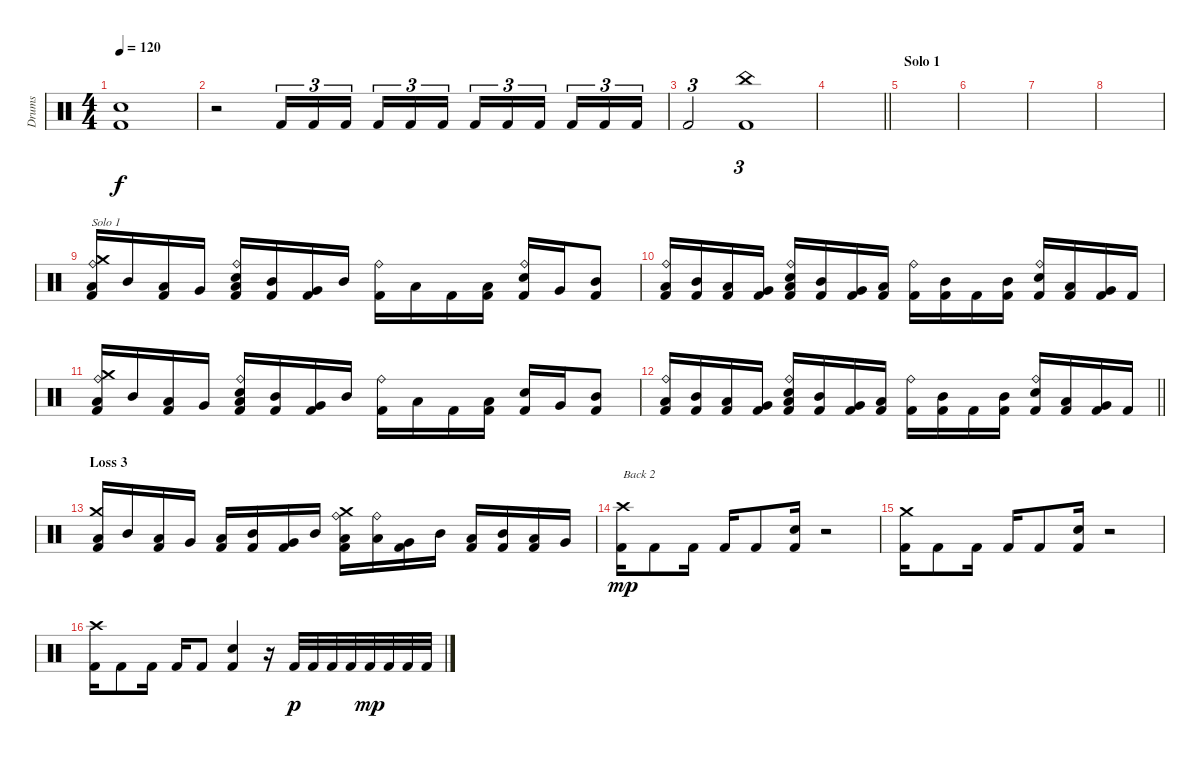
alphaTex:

\track ("Drums" "Drums") {instrument percussion}
\staff {score}
\articulation defaults
\ts (4 4)
\tempo 120
\clef neutral
\ks c
("Snare (hit) 2" "Kick (hit) 2").1{dy f} |
r.2 "Kick (hit) 2".16{tu (3 2)} "Kick (hit) 2".16{tu (3 2)} "Kick (hit) 2".16{tu (3 2) beam splitsecondary} "Kick (hit) 2".16{tu (3 2)} "Kick (hit) 2".16{tu (3 2)} "Kick (hit) 2".16{tu (3 2)} "Kick (hit) 2".16{tu (3 2)} "Kick (hit) 2".16{tu (3 2)} "Kick (hit) 2".16{tu (3 2) beam splitsecondary} "Kick (hit) 2".16{tu (3 2)} "Kick (hit) 2".16{tu (3 2)} "Kick (hit) 2".16{tu (3 2)} |
"Kick (hit) 2".2{tu (3 2)} ("China (hit)" "Kick (hit) 2").1{tu (3 2)} |
\barLineRight lightlight
|
\section ("" "Solo 1")
|
|
|
|
("Crash medium (hit)" "Ride (bell)" "Low Tom (hit)" "Kick (hit) 2").16{txt "Solo 1"} "Mid Tom (hit)".16 ("Low Tom (hit)" "Kick (hit) 2").16 "Very Low Tom (hit)".16 ("Ride (bell)" "Low Tom (hit)" "Electric Snare (hit)" "Kick (hit) 2").16 ("Mid Tom (hit)" "Kick (hit) 2").16 ("Very Low Tom (hit)" "Kick (hit) 2").16 "Mid Tom (hit)".16 ("Ride (bell)" "Kick (hit) 2").16 "Low Tom (hit)".16 "Kick (hit) 2".16 ("Low Tom (hit)" "Kick (hit) 2").16 ("Ride (bell)" "Electric Snare (hit)" "Kick (hit) 2").16 "Very Low Tom (hit)".16 ("Mid Tom (hit)" "Kick (hit) 2").8 |
("Ride (bell)" "Low Tom (hit)" "Kick (hit) 2").16 ("Mid Tom (hit)" "Kick (hit) 2").16 ("Low Tom (hit)" "Kick (hit) 2").16 ("Very Low Tom (hit)" "Kick (hit) 2").16 ("Ride (bell)" "Low Tom (hit)" "Electric Snare (hit)" "Kick (hit) 2").16 ("Mid Tom (hit)" "Kick (hit) 2").16 ("Very Low Tom (hit)" "Kick (hit) 2").16 ("Low Tom (hit)" "Kick (hit) 2").16 ("Ride (bell)" "Kick (hit) 2").16 ("Mid Tom (hit)" "Kick (hit) 2").16 "Kick (hit) 2".16 ("Mid Tom (hit)" "Kick (hit) 2").16 ("Ride (bell)" "Electric Snare (hit)" "Kick (hit) 2").16 ("Low Tom (hit)" "Kick (hit) 2").16 ("Very Low Tom (hit)" "Kick (hit) 2").16 "Kick (hit) 2".16 |
("Crash medium (hit)" "Ride (bell)" "Low Tom (hit)" "Kick (hit) 2").16 "Mid Tom (hit)".16 ("Low Tom (hit)" "Kick (hit) 2").16 "Very Low Tom (hit)".16 ("Ride (bell)" "Low Tom (hit)" "Electric Snare (hit)" "Kick (hit) 2").16 ("Mid Tom (hit)" "Kick (hit) 2").16 ("Very Low Tom (hit)" "Kick (hit) 2").16 "Mid Tom (hit)".16 ("Ride (bell)" "Kick (hit) 2").16 "Low Tom (hit)".16 "Kick (hit) 2".16 ("Low Tom (hit)" "Kick (hit) 2").16 ("Electric Snare (hit)" "Kick (hit) 2").16 "Very Low Tom (hit)".16 ("Mid Tom (hit)" "Kick (hit) 2").8 |
\barLineRight lightlight
("Ride (bell)" "Low Tom (hit)" "Kick (hit) 2").16 ("Mid Tom (hit)" "Kick (hit) 2").16 ("Low Tom (hit)" "Kick (hit) 2").16 ("Very Low Tom (hit)" "Kick (hit) 2").16 ("Ride (bell)" "Low Tom (hit)" "Electric Snare (hit)" "Kick (hit) 2").16 ("Mid Tom (hit)" "Kick (hit) 2").16 ("Very Low Tom (hit)" "Kick (hit) 2").16 ("Low Tom (hit)" "Kick (hit) 2").16 ("Ride (bell)" "Kick (hit) 2").16 ("Mid Tom (hit)" "Kick (hit) 2").16 "Kick (hit) 2".16 ("Mid Tom (hit)" "Kick (hit) 2").16 ("Ride (bell)" "Electric Snare (hit)" "Kick (hit) 2").16 ("Low Tom (hit)" "Kick (hit) 2").16 ("Very Low Tom (hit)" "Kick (hit) 2").16 "Kick (hit) 2".16 |
\section ("" "Loss 3")
("Crash medium (hit)" "Low Tom (hit)" "Kick (hit) 2").16 "Mid Tom (hit)".16 ("Low Tom (hit)" "Kick (hit) 2").16 "Very Low Tom (hit)".16 ("Low Tom (hit)" "Kick (hit) 2").16 ("Mid Tom (hit)" "Kick (hit) 2").16 ("Very Low Tom (hit)" "Kick (hit) 2").16 "Mid Tom (hit)".16 ("Crash medium (hit)" "Ride (bell)" "Low Tom (hit)" "Kick (hit) 2").16 ("Ride (bell)" "Low Tom (hit)").16 ("Very Low Tom (hit)" "Kick (hit) 2").16 "Mid Tom (hit)".16 ("Low Tom (hit)" "Kick (hit) 2").16 ("Mid Tom (hit)" "Kick (hit) 2").16 ("Low Tom (hit)" "Kick (hit) 2").16 "Very Low Tom (hit)".16 |
("Crash high (hit)" "Kick (hit) 2").16{txt "Back 2" dy mp} "Kick (hit) 2".8 "Kick (hit) 2".16 "Kick (hit) 2".16 "Kick (hit) 2".8 ("Electric Snare (hit)" "Kick (hit) 2").16 r.2 |
("Crash medium (hit)" "Kick (hit) 2").16 "Kick (hit) 2".8 "Kick (hit) 2".16 "Kick (hit) 2".16 "Kick (hit) 2".8 ("Electric Snare (hit)" "Kick (hit) 2").16 r.2 |
("Crash high (hit)" "Kick (hit) 2").16 "Kick (hit) 2".8 "Kick (hit) 2".16 "Kick (hit) 2".16 "Kick (hit) 2".8 ("Electric Snare (hit)" "Kick (hit) 2").4 r.16 "Kick (hit) 2".32{dy p} "Kick (hit) 2".32 "Kick (hit) 2".32 "Kick (hit) 2".32 "Kick (hit) 2".32{dy mp} "Kick (hit) 2".32 "Kick (hit) 2".32 "Kick (hit) 2".32
